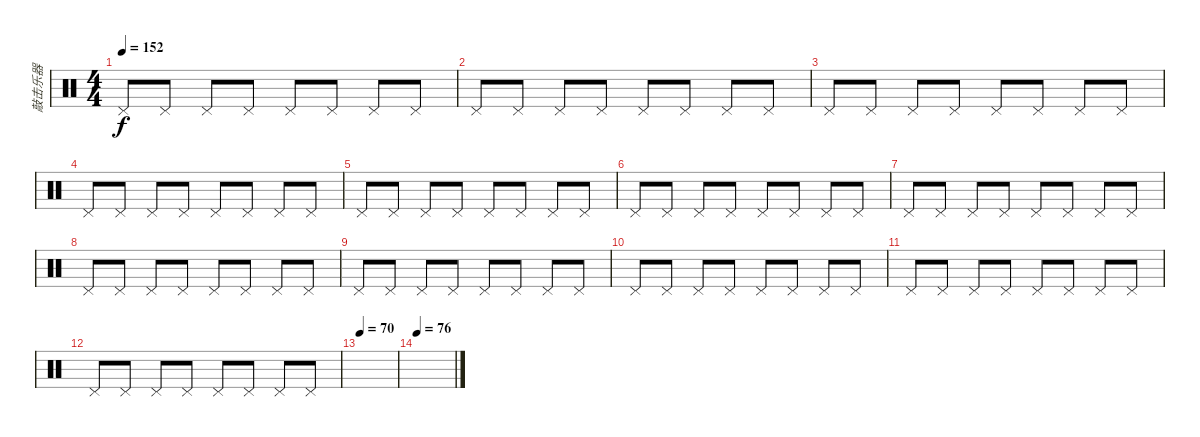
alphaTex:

\track ("敲击乐器" "敲击乐器") {instrument percussion}
\staff {score}
\articulation defaults
\ts (4 4)
\tempo 152
\clef neutral
\ks c "Pedal Hi-Hat (hit)".8{dy f} "Pedal Hi-Hat (hit)".8 "Pedal Hi-Hat (hit)".8 "Pedal Hi-Hat (hit)".8 "Pedal Hi-Hat (hit)".8 "Pedal Hi-Hat (hit)".8 "Pedal Hi-Hat (hit)".8 "Pedal Hi-Hat (hit)".8
|
"Pedal Hi-Hat (hit)".8 "Pedal Hi-Hat (hit)".8 "Pedal Hi-Hat (hit)".8 "Pedal Hi-Hat (hit)".8 "Pedal Hi-Hat (hit)".8 "Pedal Hi-Hat (hit)".8 "Pedal Hi-Hat (hit)".8 "Pedal Hi-Hat (hit)".8 |
"Pedal Hi-Hat (hit)".8 "Pedal Hi-Hat (hit)".8 "Pedal Hi-Hat (hit)".8 "Pedal Hi-Hat (hit)".8 "Pedal Hi-Hat (hit)".8 "Pedal Hi-Hat (hit)".8 "Pedal Hi-Hat (hit)".8 "Pedal Hi-Hat (hit)".8 |
"Pedal Hi-Hat (hit)".8 "Pedal Hi-Hat (hit)".8 "Pedal Hi-Hat (hit)".8 "Pedal Hi-Hat (hit)".8 "Pedal Hi-Hat (hit)".8 "Pedal Hi-Hat (hit)".8 "Pedal Hi-Hat (hit)".8 "Pedal Hi-Hat (hit)".8 |
"Pedal Hi-Hat (hit)".8 "Pedal Hi-Hat (hit)".8 "Pedal Hi-Hat (hit)".8 "Pedal Hi-Hat (hit)".8 "Pedal Hi-Hat (hit)".8 "Pedal Hi-Hat (hit)".8 "Pedal Hi-Hat (hit)".8 "Pedal Hi-Hat (hit)".8 |
"Pedal Hi-Hat (hit)".8 "Pedal Hi-Hat (hit)".8 "Pedal Hi-Hat (hit)".8 "Pedal Hi-Hat (hit)".8 "Pedal Hi-Hat (hit)".8 "Pedal Hi-Hat (hit)".8 "Pedal Hi-Hat (hit)".8 "Pedal Hi-Hat (hit)".8 |
"Pedal Hi-Hat (hit)".8 "Pedal Hi-Hat (hit)".8 "Pedal Hi-Hat (hit)".8 "Pedal Hi-Hat (hit)".8 "Pedal Hi-Hat (hit)".8 "Pedal Hi-Hat (hit)".8 "Pedal Hi-Hat (hit)".8 "Pedal Hi-Hat (hit)".8 |
"Pedal Hi-Hat (hit)".8 "Pedal Hi-Hat (hit)".8 "Pedal Hi-Hat (hit)".8 "Pedal Hi-Hat (hit)".8 "Pedal Hi-Hat (hit)".8 "Pedal Hi-Hat (hit)".8 "Pedal Hi-Hat (hit)".8 "Pedal Hi-Hat (hit)".8 |
"Pedal Hi-Hat (hit)".8 "Pedal Hi-Hat (hit)".8 "Pedal Hi-Hat (hit)".8 "Pedal Hi-Hat (hit)".8 "Pedal Hi-Hat (hit)".8 "Pedal Hi-Hat (hit)".8 "Pedal Hi-Hat (hit)".8 "Pedal Hi-Hat (hit)".8 |
"Pedal Hi-Hat (hit)".8 "Pedal Hi-Hat (hit)".8 "Pedal Hi-Hat (hit)".8 "Pedal Hi-Hat (hit)".8 "Pedal Hi-Hat (hit)".8 "Pedal Hi-Hat (hit)".8 "Pedal Hi-Hat (hit)".8 "Pedal Hi-Hat (hit)".8 |
"Pedal Hi-Hat (hit)".8 "Pedal Hi-Hat (hit)".8 "Pedal Hi-Hat (hit)".8 "Pedal Hi-Hat (hit)".8 "Pedal Hi-Hat (hit)".8 "Pedal Hi-Hat (hit)".8 "Pedal Hi-Hat (hit)".8 "Pedal Hi-Hat (hit)".8 |
"Pedal Hi-Hat (hit)".8 "Pedal Hi-Hat (hit)".8 "Pedal Hi-Hat (hit)".8 "Pedal Hi-Hat (hit)".8 "Pedal Hi-Hat (hit)".8 "Pedal Hi-Hat (hit)".8 "Pedal Hi-Hat (hit)".8 "Pedal Hi-Hat (hit)".8 |
\tempo 70
|
\tempo 76
